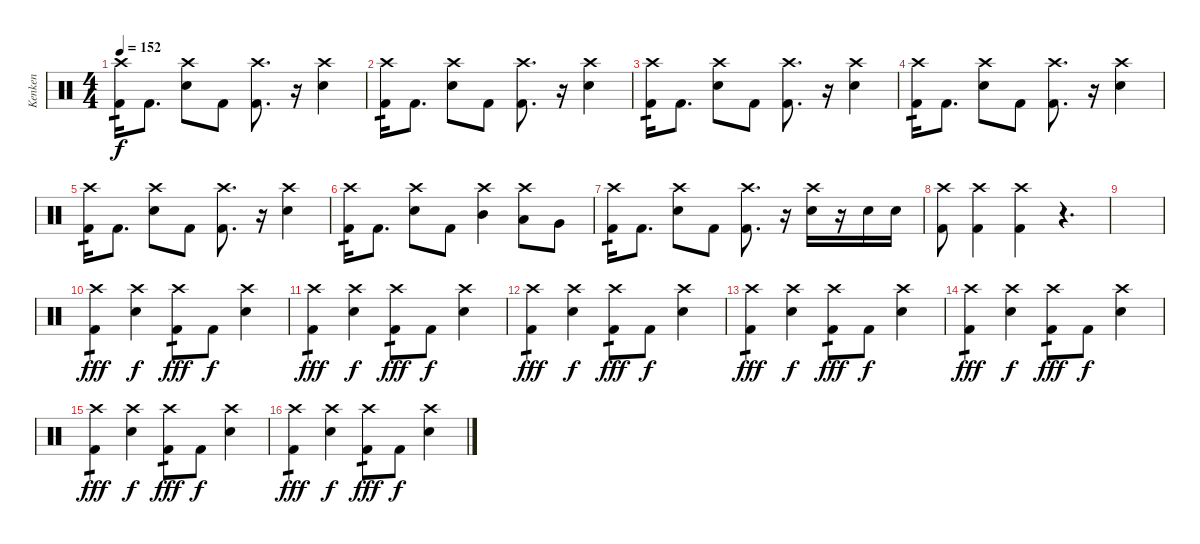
\track ("Kenken" "Kenken") {instrument percussion}
\staff {score}
\articulation defaults
\ts (4 4)
\tempo 152
\clef neutral
\ks c
("Crash high (hit)" "Kick (hit) 2").16{tp 1 dy f} "Kick (hit) 2".8{d} ("Crash high (hit)" "Electric Snare (hit)").8 "Kick (hit) 2".8 ("Crash high (hit)" "Kick (hit) 2").8{d} r.16 ("Crash high (hit)" "Electric Snare (hit)").4 |
("Crash high (hit)" "Kick (hit) 2").16{tp 1} "Kick (hit) 2".8{d} ("Crash high (hit)" "Electric Snare (hit)").8 "Kick (hit) 2".8 ("Crash high (hit)" "Kick (hit) 2").8{d} r.16 ("Crash high (hit)" "Electric Snare (hit)").4 |
("Crash high (hit)" "Kick (hit) 2").16{tp 1} "Kick (hit) 2".8{d} ("Crash high (hit)" "Electric Snare (hit)").8 "Kick (hit) 2".8 ("Crash high (hit)" "Kick (hit) 2").8{d} r.16 ("Crash high (hit)" "Electric Snare (hit)").4 |
("Crash high (hit)" "Kick (hit) 2").16{tp 1} "Kick (hit) 2".8{d} ("Crash high (hit)" "Electric Snare (hit)").8 "Kick (hit) 2".8 ("Crash high (hit)" "Kick (hit) 2").8{d} r.16 ("Crash high (hit)" "Electric Snare (hit)").4 |
("Crash high (hit)" "Kick (hit) 2").16{tp 1} "Kick (hit) 2".8{d} ("Crash high (hit)" "Electric Snare (hit)").8 "Kick (hit) 2".8 ("Crash high (hit)" "Kick (hit) 2").8{d} r.16 ("Crash high (hit)" "Electric Snare (hit)").4 |
("Crash high (hit)" "Kick (hit) 2").16{tp 1} "Kick (hit) 2".8{d} ("Crash high (hit)" "Electric Snare (hit)").8 "Kick (hit) 2".8 ("Crash high (hit)" "Mid Tom (hit)").4 ("Crash high (hit)" "Low Tom (hit)").8 "Very Low Tom (hit)".8 |
("Crash high (hit)" "Kick (hit) 2").16{tp 1} "Kick (hit) 2".8{d} ("Crash high (hit)" "Electric Snare (hit)").8 "Kick (hit) 2".8 ("Crash high (hit)" "Kick (hit) 2").8{d} r.16 ("Crash high (hit)" "Electric Snare (hit)").16 r.16 "Electric Snare (hit)".16 "Electric Snare (hit)".16 |
("Crash high (hit)" "Kick (hit) 2").8 ("Crash high (hit)" "Kick (hit) 2").4 ("Crash high (hit)" "Kick (hit) 2").4 r.4{d} |
|
("Crash high (hit)" "Kick (hit) 2").4{tp 1 dy fff} ("Crash high (hit)" "Electric Snare (hit)").4{dy f} ("Crash high (hit)" "Kick (hit) 2").8{tp 1 dy fff} "Kick (hit) 2".8{dy f} ("Crash high (hit)" "Electric Snare (hit)").4 |
("Crash high (hit)" "Kick (hit) 2").4{tp 1 dy fff} ("Crash high (hit)" "Electric Snare (hit)").4{dy f} ("Crash high (hit)" "Kick (hit) 2").8{tp 1 dy fff} "Kick (hit) 2".8{dy f} ("Crash high (hit)" "Electric Snare (hit)").4 |
("Crash high (hit)" "Kick (hit) 2").4{tp 1 dy fff} ("Crash high (hit)" "Electric Snare (hit)").4{dy f} ("Crash high (hit)" "Kick (hit) 2").8{tp 1 dy fff} "Kick (hit) 2".8{dy f} ("Crash high (hit)" "Electric Snare (hit)").4 |
("Crash high (hit)" "Kick (hit) 2").4{tp 1 dy fff} ("Crash high (hit)" "Electric Snare (hit)").4{dy f} ("Crash high (hit)" "Kick (hit) 2").8{tp 1 dy fff} "Kick (hit) 2".8{dy f} ("Crash high (hit)" "Electric Snare (hit)").4 |
("Crash high (hit)" "Kick (hit) 2").4{tp 1 dy fff} ("Crash high (hit)" "Electric Snare (hit)").4{dy f} ("Crash high (hit)" "Kick (hit) 2").8{tp 1 dy fff} "Kick (hit) 2".8{dy f} ("Crash high (hit)" "Electric Snare (hit)").4 |
("Crash high (hit)" "Kick (hit) 2").4{tp 1 dy fff} ("Crash high (hit)" "Electric Snare (hit)").4{dy f} ("Crash high (hit)" "Kick (hit) 2").8{tp 1 dy fff} "Kick (hit) 2".8{dy f} ("Crash high (hit)" "Electric Snare (hit)").4 |
("Crash high (hit)" "Kick (hit) 2").4{tp 1 dy fff} ("Crash high (hit)" "Electric Snare (hit)").4{dy f} ("Crash high (hit)" "Kick (hit) 2").8{tp 1 dy fff} "Kick (hit) 2".8{dy f} ("Crash high (hit)" "Electric Snare (hit)").4
